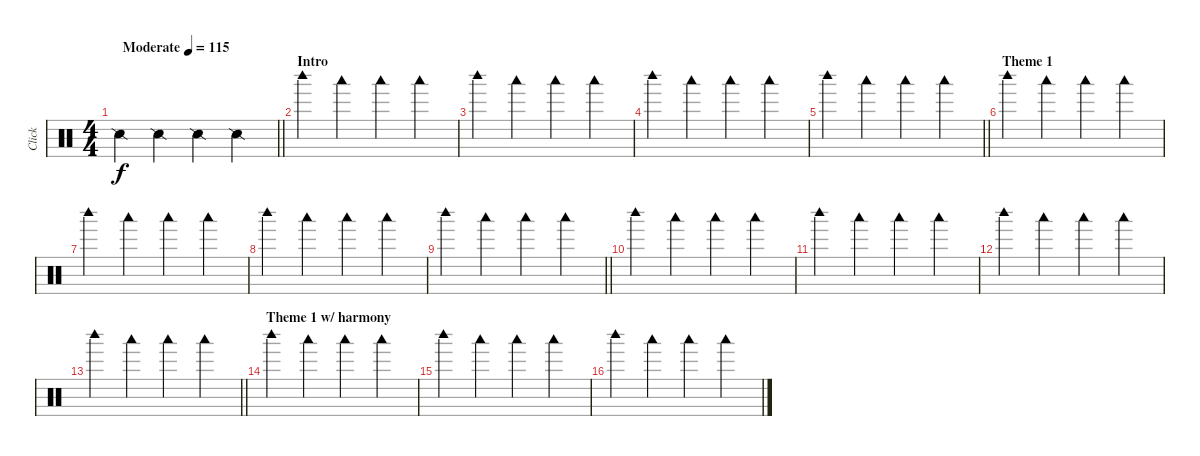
\track ("Click" "Click") {mute instrument percussion}
\staff {score}
\articulation defaults
\ts (4 4)
\tempo (115 "Moderate")
\clef neutral
\barLineRight lightlight
\ks c "Snare (side stick) 2".4{dy f} "Snare (side stick) 2".4 "Snare (side stick) 2".4 "Snare (side stick) 2".4
|
\section ("" "Intro")
"Woodblock high (hit)".4 "Woodblock low (hit)".4 "Woodblock low (hit)".4 "Woodblock low (hit)".4 |
"Woodblock high (hit)".4 "Woodblock low (hit)".4 "Woodblock low (hit)".4 "Woodblock low (hit)".4 |
"Woodblock high (hit)".4 "Woodblock low (hit)".4 "Woodblock low (hit)".4 "Woodblock low (hit)".4 |
\barLineRight lightlight "Woodblock high (hit)".4 "Woodblock low (hit)".4 "Woodblock low (hit)".4 "Woodblock low (hit)".4
|
\section ("" "Theme 1")
"Woodblock high (hit)".4 "Woodblock low (hit)".4 "Woodblock low (hit)".4 "Woodblock low (hit)".4 |
"Woodblock high (hit)".4 "Woodblock low (hit)".4 "Woodblock low (hit)".4 "Woodblock low (hit)".4 |
"Woodblock high (hit)".4 "Woodblock low (hit)".4 "Woodblock low (hit)".4 "Woodblock low (hit)".4 |
\barLineRight lightlight "Woodblock high (hit)".4 "Woodblock low (hit)".4 "Woodblock low (hit)".4 "Woodblock low (hit)".4
|
"Woodblock high (hit)".4 "Woodblock low (hit)".4 "Woodblock low (hit)".4 "Woodblock low (hit)".4 |
"Woodblock high (hit)".4 "Woodblock low (hit)".4 "Woodblock low (hit)".4 "Woodblock low (hit)".4 |
"Woodblock high (hit)".4 "Woodblock low (hit)".4 "Woodblock low (hit)".4 "Woodblock low (hit)".4 |
\barLineRight lightlight "Woodblock high (hit)".4 "Woodblock low (hit)".4 "Woodblock low (hit)".4 "Woodblock low (hit)".4
|
\section ("" "Theme 1 w/ harmony")
"Woodblock high (hit)".4 "Woodblock low (hit)".4 "Woodblock low (hit)".4 "Woodblock low (hit)".4 |
"Woodblock high (hit)".4 "Woodblock low (hit)".4 "Woodblock low (hit)".4 "Woodblock low (hit)".4 |
"Woodblock high (hit)".4 "Woodblock low (hit)".4 "Woodblock low (hit)".4 "Woodblock low (hit)".4
